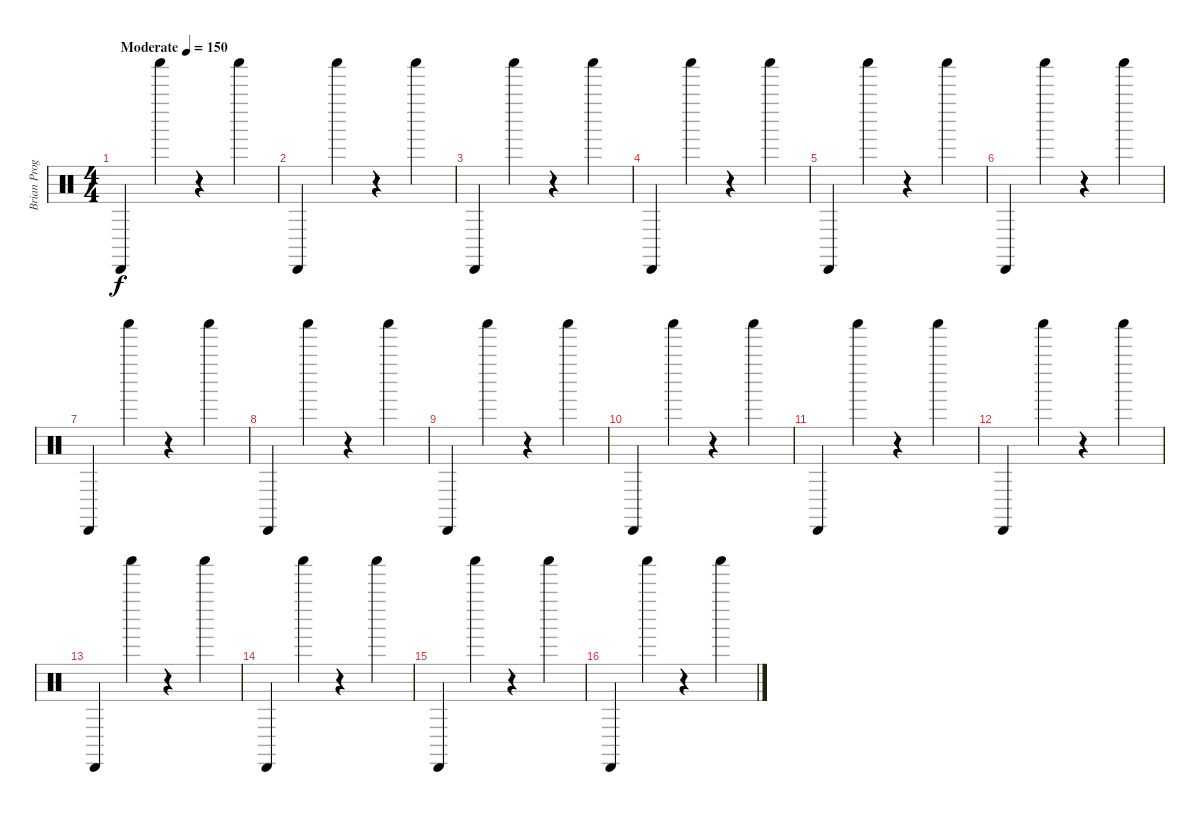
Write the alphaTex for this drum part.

\track ("Brian Programming" "Brian Prog") {instrument percussion}
\staff {score}
\articulation defaults
\ts (4 4)
\tempo (150 "Moderate")
\clef neutral
\ks c "Cabasa (hit)".4{dy f} "Shaker (hit)".4
r.4 "Shaker (hit)".4 |
"Cabasa (hit)".4 "Shaker (hit)".4 r.4 "Shaker (hit)".4 |
"Cabasa (hit)".4 "Shaker (hit)".4 r.4 "Shaker (hit)".4 |
"Cabasa (hit)".4 "Shaker (hit)".4 r.4 "Shaker (hit)".4 |
"Cabasa (hit)".4 "Shaker (hit)".4 r.4 "Shaker (hit)".4 |
"Cabasa (hit)".4 "Shaker (hit)".4 r.4 "Shaker (hit)".4 |
"Cabasa (hit)".4 "Shaker (hit)".4 r.4 "Shaker (hit)".4 |
"Cabasa (hit)".4 "Shaker (hit)".4 r.4 "Shaker (hit)".4 |
"Cabasa (hit)".4 "Shaker (hit)".4 r.4 "Shaker (hit)".4 |
"Cabasa (hit)".4 "Shaker (hit)".4 r.4 "Shaker (hit)".4 |
"Cabasa (hit)".4 "Shaker (hit)".4 r.4 "Shaker (hit)".4 |
"Cabasa (hit)".4 "Shaker (hit)".4 r.4 "Shaker (hit)".4 |
"Cabasa (hit)".4 "Shaker (hit)".4 r.4 "Shaker (hit)".4 |
"Cabasa (hit)".4 "Shaker (hit)".4 r.4 "Shaker (hit)".4 |
"Cabasa (hit)".4 "Shaker (hit)".4 r.4 "Shaker (hit)".4 |
"Cabasa (hit)".4 "Shaker (hit)".4 r.4 "Shaker (hit)".4
